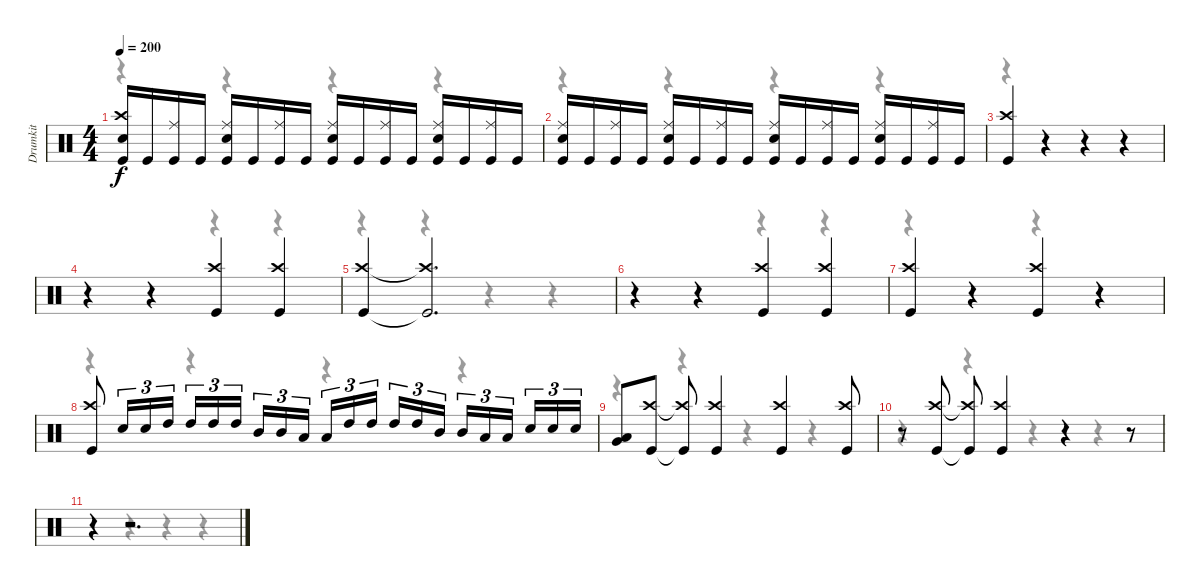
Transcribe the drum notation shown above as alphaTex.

\track ("Drumkit" "Drumkit") {instrument percussion}
\staff {score}
\articulation defaults
\voice
\ts (4 4)
\tempo 200
\clef neutral
\ks c
("Crash high (hit)" "Snare (hit) 2" "Kick (hit)").16{dy f} "Kick (hit)".16 ("Ride (middle)" "Kick (hit)").16 "Kick (hit)".16 ("Ride (middle)" "Snare (hit) 2" "Kick (hit)").16 "Kick (hit)".16 ("Ride (middle)" "Kick (hit)").16 "Kick (hit)".16 ("Ride (middle)" "Snare (hit) 2" "Kick (hit)").16 "Kick (hit)".16 ("Ride (middle)" "Kick (hit)").16 "Kick (hit)".16 ("Ride (middle)" "Snare (hit) 2" "Kick (hit)").16 "Kick (hit)".16 ("Ride (middle)" "Kick (hit)").16 "Kick (hit)".16 |
("Ride (middle)" "Snare (hit) 2" "Kick (hit)").16 "Kick (hit)".16 ("Ride (middle)" "Kick (hit)").16 "Kick (hit)".16 ("Ride (middle)" "Snare (hit) 2" "Kick (hit)").16 "Kick (hit)".16 ("Ride (middle)" "Kick (hit)").16 "Kick (hit)".16 ("Ride (middle)" "Snare (hit) 2" "Kick (hit)").16 "Kick (hit)".16 ("Ride (middle)" "Kick (hit)").16 "Kick (hit)".16 ("Ride (middle)" "Snare (hit) 2" "Kick (hit)").16 "Kick (hit)".16 ("Ride (middle)" "Kick (hit)").16 "Kick (hit)".16 |
("Crash high (hit)" "Kick (hit)").4 r.4 r.4 r.4 |
r.4 r.4 ("Crash high (hit)" "Kick (hit)").4 ("Crash high (hit)" "Kick (hit)").4 |
("Crash high (hit)" "Kick (hit)").4 ("Crash high (hit)"{t} "Kick (hit)"{t}).2{d} |
r.4 r.4 ("Crash high (hit)" "Kick (hit)").4 ("Crash high (hit)" "Kick (hit)").4 |
("Crash high (hit)" "Kick (hit)").4 r.4 ("Crash high (hit)" "Kick (hit)").4 r.4 |
("Crash high (hit)" "Kick (hit)").8 "Snare (hit) 2".16{tu (3 2)} "Snare (hit) 2".16{tu (3 2)} "High Tom (hit)".16{tu (3 2)} "High Tom (hit)".16{tu (3 2)} "High Tom (hit)".16{tu (3 2)} "High Tom (hit)".16{tu (3 2)} "Mid Tom (hit)".16{tu (3 2)} "Mid Tom (hit)".16{tu (3 2)} "Low Tom (hit)".16{tu (3 2)} "Low Tom (hit)".16{tu (3 2)} "High Tom (hit)".16{tu (3 2)} "High Tom (hit)".16{tu (3 2)} "High Tom (hit)".16{tu (3 2)} "High Tom (hit)".16{tu (3 2)} "Mid Tom (hit)".16{tu (3 2)} "Mid Tom (hit)".16{tu (3 2)} "Low Tom (hit)".16{tu (3 2)} "Low Tom (hit)".16{tu (3 2)} "Snare (hit) 2".16{tu (3 2)} "Snare (hit) 2".16{tu (3 2)} "Snare (hit) 2".16{tu (3 2)} |
("Low Floor Tom (hit)" "Very Low Tom (hit)").8 ("Crash high (hit)" "Kick (hit)").8 ("Crash high (hit)"{t} "Kick (hit)"{t}).8 ("Crash high (hit)" "Kick (hit)").4 ("Crash high (hit)" "Kick (hit)").4 ("Crash high (hit)" "Kick (hit)").8 |
r.8 ("Crash high (hit)" "Kick (hit)").8 ("Crash high (hit)"{t} "Kick (hit)"{t}).8 ("Crash high (hit)" "Kick (hit)").4 r.4 r.8 |
r.4 r.2{d}
\voice
\clef neutral
\ottava regular
\simile none
\ks c
r.4{dy f} r.4 r.4 r.4 |
r.4 r.4 r.4 r.4 |
r.4 r.4 r.4 r.4 |
r.4 r.4 r.4 r.4 |
r.4 r.4 r.4 r.4 |
r.4 r.4 r.4 r.4 |
r.4 r.4 r.4 r.4 |
r.4 r.4 r.4 r.4 |
r.4 r.4 r.4 r.4 |
r.4 r.4 r.4 r.4 |
r.4 r.4 r.4 r.4
